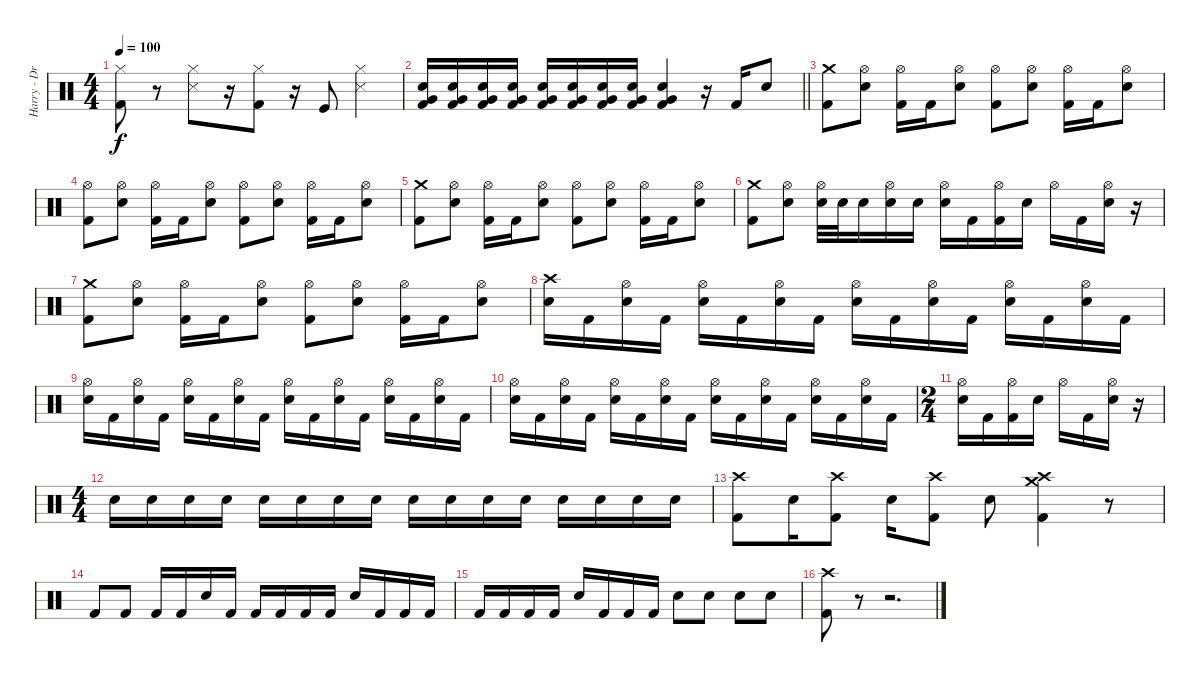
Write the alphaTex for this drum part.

\track ("Harry - Drums" "Harry - Dr") {instrument percussion}
\staff {score}
\articulation defaults
\ts (4 4)
\tempo 100
\clef neutral
\ks c
("Hi-Hat (closed)" "Kick (hit) 2").8{dy f} r.8 ("Hi-Hat (closed)" "Snare (side stick) 3").8 r.16 ("Hi-Hat (closed)" "Kick (hit) 2").8 r.16 "Kick (hit)".8 ("Hi-Hat (closed)" "Snare (side stick) 3").4 |
\barLineRight lightlight
("Kick (hit) 2" "Snare (hit) 2" "Very Low Tom (hit)").16 ("Kick (hit) 2" "Snare (hit) 2" "Very Low Tom (hit)").16 ("Kick (hit) 2" "Snare (hit) 2" "Very Low Tom (hit)").16 ("Kick (hit) 2" "Snare (hit) 2" "Very Low Tom (hit)").16 ("Kick (hit) 2" "Snare (hit) 2" "Very Low Tom (hit)").16 ("Kick (hit) 2" "Snare (hit) 2" "Very Low Tom (hit)").16 ("Kick (hit) 2" "Snare (hit) 2" "Very Low Tom (hit)").16 ("Kick (hit) 2" "Snare (hit) 2" "Very Low Tom (hit)").16 ("Kick (hit) 2" "Snare (hit) 2" "Very Low Tom (hit)").4 r.16 "Kick (hit) 2".16 "Snare (hit) 2".8 |
("Crash medium (hit)" "Kick (hit) 2").8 ("Hi-Hat (open)" "Electric Snare (hit)").8 ("Hi-Hat (open)" "Kick (hit) 2").16 "Kick (hit) 2".16 ("Hi-Hat (open)" "Electric Snare (hit)").8 ("Hi-Hat (open)" "Kick (hit) 2").8 ("Hi-Hat (open)" "Electric Snare (hit)").8 ("Hi-Hat (open)" "Kick (hit) 2").16 "Kick (hit) 2".16 ("Hi-Hat (open)" "Electric Snare (hit)").8 |
("Hi-Hat (open)" "Kick (hit) 2").8 ("Hi-Hat (open)" "Electric Snare (hit)").8 ("Hi-Hat (open)" "Kick (hit) 2").16 "Kick (hit) 2".16 ("Hi-Hat (open)" "Electric Snare (hit)").8 ("Hi-Hat (open)" "Kick (hit) 2").8 ("Hi-Hat (open)" "Electric Snare (hit)").8 ("Hi-Hat (open)" "Kick (hit) 2").16 "Kick (hit) 2".16 ("Hi-Hat (open)" "Electric Snare (hit)").8 |
("Crash medium (hit)" "Kick (hit) 2").8 ("Hi-Hat (open)" "Electric Snare (hit)").8 ("Hi-Hat (open)" "Kick (hit) 2").16 "Kick (hit) 2".16 ("Hi-Hat (open)" "Electric Snare (hit)").8 ("Hi-Hat (open)" "Kick (hit) 2").8 ("Hi-Hat (open)" "Electric Snare (hit)").8 ("Hi-Hat (open)" "Kick (hit) 2").16 "Kick (hit) 2".16 ("Hi-Hat (open)" "Electric Snare (hit)").8 |
("Crash medium (hit)" "Kick (hit) 2").8 ("Hi-Hat (open)" "Electric Snare (hit)").8 ("Hi-Hat (open)" "Electric Snare (hit)").32 "Electric Snare (hit)".32 "Electric Snare (hit)".16 ("Hi-Hat (open)" "Electric Snare (hit)").16 "Electric Snare (hit)".16 ("Hi-Hat (open)" "Electric Snare (hit)").16 "Kick (hit) 2".16 ("Hi-Hat (open)" "Kick (hit) 2").16 "Electric Snare (hit)".16 "Hi-Hat (open)".16 "Kick (hit) 2".16 ("Hi-Hat (open)" "Electric Snare (hit)").16 r.16 |
("Crash medium (hit)" "Kick (hit) 2").8 ("Hi-Hat (open)" "Electric Snare (hit)").8 ("Hi-Hat (open)" "Kick (hit) 2").16 "Kick (hit) 2".16 ("Hi-Hat (open)" "Electric Snare (hit)").8 ("Hi-Hat (open)" "Kick (hit) 2").8 ("Hi-Hat (open)" "Electric Snare (hit)").8 ("Hi-Hat (open)" "Kick (hit) 2").16 "Kick (hit) 2".16 ("Hi-Hat (open)" "Electric Snare (hit)").8 |
("Snare (hit) 2" "Crash high (hit)").16 "Kick (hit) 2".16 ("Hi-Hat (open)" "Snare (hit) 2").16 "Kick (hit) 2".16 ("Hi-Hat (open)" "Snare (hit) 2").16 "Kick (hit) 2".16 ("Hi-Hat (open)" "Snare (hit) 2").16 "Kick (hit) 2".16 ("Hi-Hat (open)" "Snare (hit) 2").16 "Kick (hit) 2".16 ("Hi-Hat (open)" "Snare (hit) 2").16 "Kick (hit) 2".16 ("Hi-Hat (open)" "Snare (hit) 2").16 "Kick (hit) 2".16 ("Hi-Hat (open)" "Snare (hit) 2").16 "Kick (hit) 2".16 |
("Hi-Hat (open)" "Snare (hit) 2").16 "Kick (hit) 2".16 ("Hi-Hat (open)" "Snare (hit) 2").16 "Kick (hit) 2".16 ("Hi-Hat (open)" "Snare (hit) 2").16 "Kick (hit) 2".16 ("Hi-Hat (open)" "Snare (hit) 2").16 "Kick (hit) 2".16 ("Hi-Hat (open)" "Snare (hit) 2").16 "Kick (hit) 2".16 ("Hi-Hat (open)" "Snare (hit) 2").16 "Kick (hit) 2".16 ("Hi-Hat (open)" "Snare (hit) 2").16 "Kick (hit) 2".16 ("Hi-Hat (open)" "Snare (hit) 2").16 "Kick (hit) 2".16 |
("Hi-Hat (open)" "Snare (hit) 2").16 "Kick (hit) 2".16 ("Hi-Hat (open)" "Snare (hit) 2").16 "Kick (hit) 2".16 ("Hi-Hat (open)" "Snare (hit) 2").16 "Kick (hit) 2".16 ("Hi-Hat (open)" "Snare (hit) 2").16 "Kick (hit) 2".16 ("Hi-Hat (open)" "Snare (hit) 2").16 "Kick (hit) 2".16 ("Hi-Hat (open)" "Snare (hit) 2").16 "Kick (hit) 2".16 ("Hi-Hat (open)" "Snare (hit) 2").16 "Kick (hit) 2".16 ("Hi-Hat (open)" "Snare (hit) 2").16 "Kick (hit) 2".16 |
\ts (2 4)
("Hi-Hat (open)" "Electric Snare (hit)").16 "Kick (hit) 2".16 ("Hi-Hat (open)" "Kick (hit) 2").16 "Electric Snare (hit)".16 "Hi-Hat (open)".16 "Kick (hit) 2".16 ("Hi-Hat (open)" "Electric Snare (hit)").16 r.16 |
\ts (4 4)
"Snare (hit) 2".16 "Snare (hit) 2".16 "Snare (hit) 2".16 "Snare (hit) 2".16 "Snare (hit) 2".16 "Snare (hit) 2".16 "Snare (hit) 2".16 "Snare (hit) 2".16 "Snare (hit) 2".16 "Snare (hit) 2".16 "Snare (hit) 2".16 "Snare (hit) 2".16 "Snare (hit) 2".16 "Snare (hit) 2".16 "Snare (hit) 2".16 "Snare (hit) 2".16 |
("Crash high (hit)" "Kick (hit) 2").8 "Snare (hit) 2".16 ("Crash high (hit)" "Kick (hit) 2").8 "Snare (hit) 2".16 ("Kick (hit) 2" "Crash high (hit)").8 "Snare (hit) 2".8 ("Kick (hit) 2" "Crash high (hit)" "Crash medium (hit)").4 r.8 |
"Kick (hit) 2".8 "Kick (hit) 2".8 "Kick (hit) 2".16 "Kick (hit) 2".16 "Snare (hit) 2".16 "Kick (hit) 2".16 "Kick (hit) 2".16 "Kick (hit) 2".16 "Kick (hit) 2".16 "Kick (hit) 2".16 "Snare (hit) 2".16 "Kick (hit) 2".16 "Kick (hit) 2".16 "Kick (hit) 2".16 |
"Kick (hit) 2".16 "Kick (hit) 2".16 "Kick (hit) 2".16 "Kick (hit) 2".16 "Snare (hit) 2".16 "Kick (hit) 2".16 "Kick (hit) 2".16 "Kick (hit) 2".16 "Snare (hit) 2".8 "Snare (hit) 2".8 "Snare (hit) 2".8 "Snare (hit) 2".8 |
("Crash high (hit)" "Kick (hit) 2").8 r.8 r.2{d}
